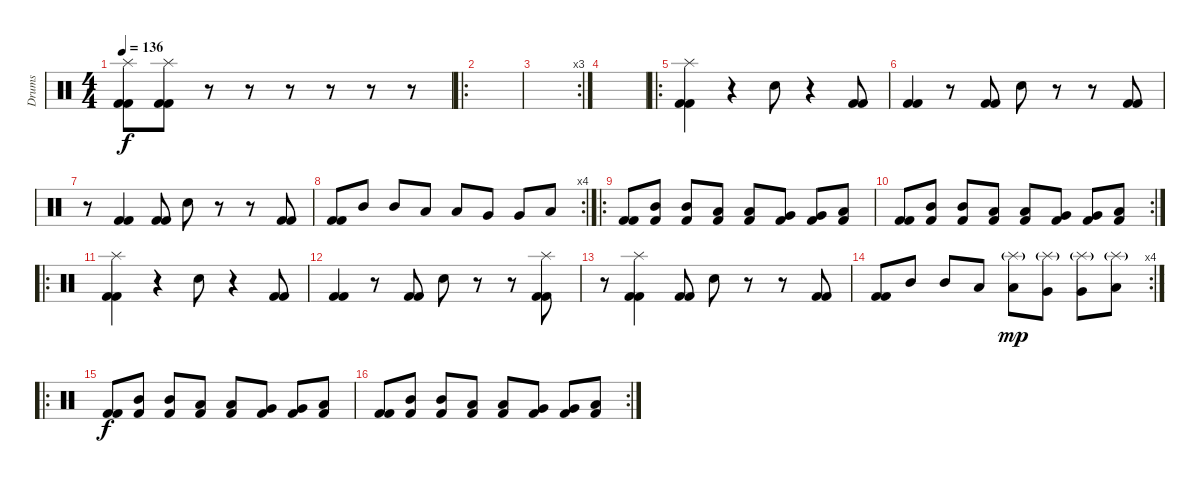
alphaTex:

\track ("Drums" "Drums") {instrument percussion}
\staff {score}
\articulation defaults
\ts (4 4)
\tempo 136
\clef neutral
\ks c
("Splash (hit)" "Kick (hit) 2" "Kick (hit) 2").8{dy f} ("Splash (hit)" "Kick (hit) 2" "Kick (hit) 2").8 r.8 r.8 r.8 r.8 r.8 r.8 |
\ro
|
\rc 3
|
|
\ro
("Splash (hit)" "Kick (hit) 2" "Kick (hit) 2").4 r.4 "Electric Snare (hit)".8 r.4 ("Kick (hit) 2" "Kick (hit) 2").8 |
("Kick (hit) 2" "Kick (hit) 2").4 r.8 ("Kick (hit) 2" "Kick (hit) 2").8 "Electric Snare (hit)".8 r.8 r.8 ("Kick (hit) 2" "Kick (hit) 2").8 |
r.8 ("Kick (hit) 2" "Kick (hit) 2").4 ("Kick (hit) 2" "Kick (hit) 2").8 "Electric Snare (hit)".8 r.8 r.8 ("Kick (hit) 2" "Kick (hit) 2").8 |
\rc 4
("Kick (hit) 2" "Kick (hit) 2").8 "Mid Tom (hit)".8 "Mid Tom (hit)".8 "Low Tom (hit)".8 "Low Tom (hit)".8 "Very Low Tom (hit)".8 "Very Low Tom (hit)".8 "Low Floor Tom (hit)".8 |
\ro
("Kick (hit) 2" "Kick (hit) 2").8 ("Mid Tom (hit)" "Kick (hit) 2").8 ("Mid Tom (hit)" "Kick (hit) 2").8 ("Low Tom (hit)" "Kick (hit) 2").8 ("Low Tom (hit)" "Kick (hit) 2").8 ("Very Low Tom (hit)" "Kick (hit) 2").8 ("Very Low Tom (hit)" "Kick (hit) 2").8 ("Low Floor Tom (hit)" "Kick (hit) 2").8 |
\rc 2
("Kick (hit) 2" "Kick (hit) 2").8 ("Mid Tom (hit)" "Kick (hit) 2").8 ("Mid Tom (hit)" "Kick (hit) 2").8 ("Low Tom (hit)" "Kick (hit) 2").8 ("Low Tom (hit)" "Kick (hit) 2").8 ("Very Low Tom (hit)" "Kick (hit) 2").8 ("Very Low Tom (hit)" "Kick (hit) 2").8 ("Low Floor Tom (hit)" "Kick (hit) 2").8 |
\ro
("Splash (hit)" "Kick (hit) 2" "Kick (hit) 2").4 r.4 "Electric Snare (hit)".8 r.4 ("Kick (hit) 2" "Kick (hit) 2").8 |
("Kick (hit) 2" "Kick (hit) 2").4 r.8 ("Kick (hit) 2" "Kick (hit) 2").8 "Electric Snare (hit)".8 r.8 r.8 ("Splash (hit)" "Kick (hit) 2" "Kick (hit) 2").8 |
r.8 ("Splash (hit)" "Kick (hit) 2" "Kick (hit) 2").4 ("Kick (hit) 2" "Kick (hit) 2").8 "Electric Snare (hit)".8 r.8 r.8 ("Kick (hit) 2" "Kick (hit) 2").8 |
\rc 4
("Kick (hit) 2" "Kick (hit) 2").8 "Mid Tom (hit)".8 "Mid Tom (hit)".8 "Low Tom (hit)".8 ("Splash (hit)"{g} "Low Tom (hit)").8{dy mp} ("Splash (hit)"{g} "Very Low Tom (hit)").8 ("Splash (hit)"{g} "Very Low Tom (hit)").8 ("Splash (hit)"{g} "Low Floor Tom (hit)").8 |
\ro
("Kick (hit) 2" "Kick (hit) 2").8{dy f} ("Mid Tom (hit)" "Kick (hit) 2").8 ("Mid Tom (hit)" "Kick (hit) 2").8 ("Low Tom (hit)" "Kick (hit) 2").8 ("Low Tom (hit)" "Kick (hit) 2").8 ("Very Low Tom (hit)" "Kick (hit) 2").8 ("Very Low Tom (hit)" "Kick (hit) 2").8 ("Low Floor Tom (hit)" "Kick (hit) 2").8 |
\rc 2
("Kick (hit) 2" "Kick (hit) 2").8 ("Mid Tom (hit)" "Kick (hit) 2").8 ("Mid Tom (hit)" "Kick (hit) 2").8 ("Low Tom (hit)" "Kick (hit) 2").8 ("Low Tom (hit)" "Kick (hit) 2").8 ("Very Low Tom (hit)" "Kick (hit) 2").8 ("Very Low Tom (hit)" "Kick (hit) 2").8 ("Low Floor Tom (hit)" "Kick (hit) 2").8
